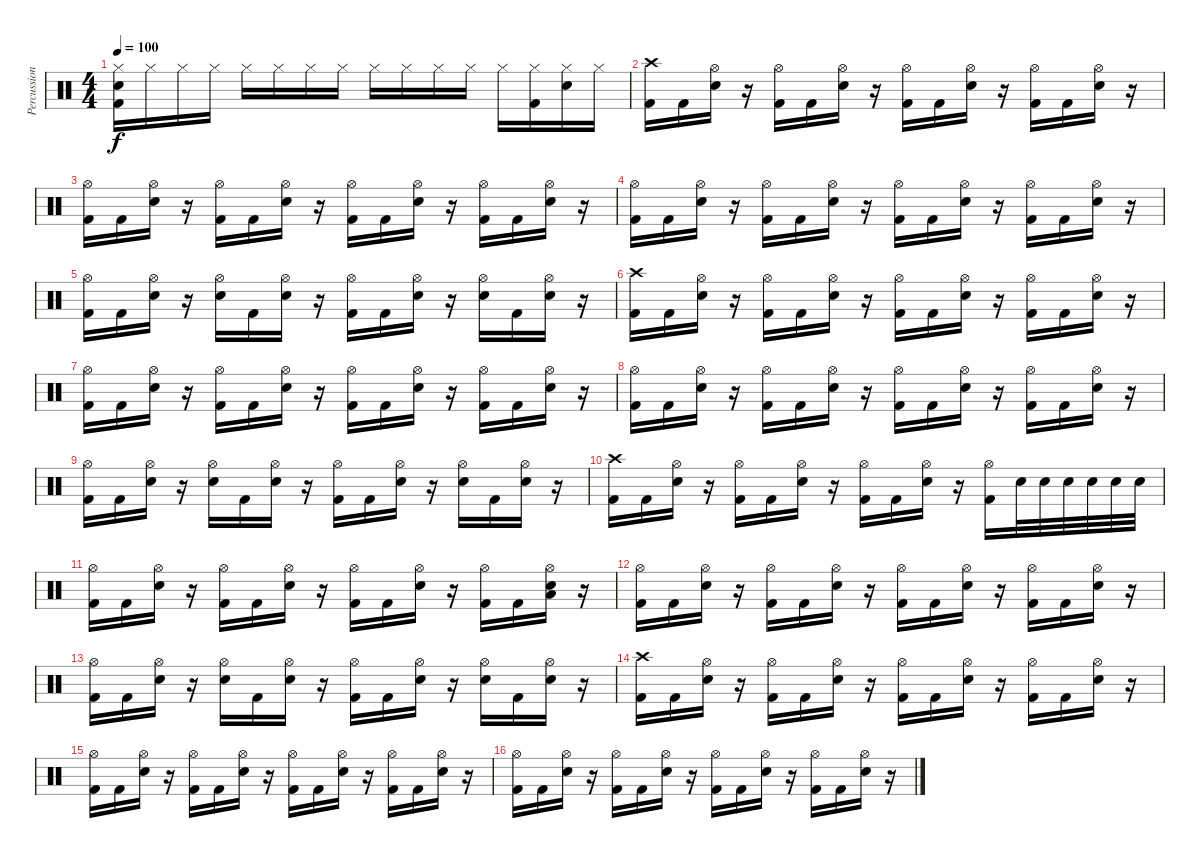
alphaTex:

\track ("Percussion" "Percussion") {instrument percussion}
\staff {score}
\articulation defaults
\ts (4 4)
\tempo 100
\clef neutral
\ks c
("Hi-Hat (closed)" "Snare (hit) 2" "Kick (hit) 2").16{dy f} "Hi-Hat (closed)".16 "Hi-Hat (closed)".16 "Hi-Hat (closed)".16 "Hi-Hat (closed)".16 "Hi-Hat (closed)".16 "Hi-Hat (closed)".16 "Hi-Hat (closed)".16 "Hi-Hat (closed)".16 "Hi-Hat (closed)".16 "Hi-Hat (closed)".16 "Hi-Hat (closed)".16 "Hi-Hat (closed)".16 ("Hi-Hat (closed)" "Kick (hit) 2").16 ("Hi-Hat (closed)" "Snare (hit) 2").16 "Hi-Hat (closed)".16 |
("Crash high (hit)" "Kick (hit) 2").16 "Kick (hit) 2".16 ("Hi-Hat (open)" "Snare (hit) 2").16 r.16 ("Hi-Hat (open)" "Kick (hit) 2").16 "Kick (hit) 2".16 ("Hi-Hat (open)" "Snare (hit) 2").16 r.16 ("Hi-Hat (open)" "Kick (hit) 2").16 "Kick (hit) 2".16 ("Hi-Hat (open)" "Snare (hit) 2").16 r.16 ("Hi-Hat (open)" "Kick (hit) 2").16 "Kick (hit) 2".16 ("Hi-Hat (open)" "Snare (hit) 2").16 r.16 |
("Hi-Hat (open)" "Kick (hit) 2").16 "Kick (hit) 2".16 ("Hi-Hat (open)" "Snare (hit) 2").16 r.16 ("Hi-Hat (open)" "Kick (hit) 2").16 "Kick (hit) 2".16 ("Hi-Hat (open)" "Snare (hit) 2").16 r.16 ("Hi-Hat (open)" "Kick (hit) 2").16 "Kick (hit) 2".16 ("Hi-Hat (open)" "Snare (hit) 2").16 r.16 ("Hi-Hat (open)" "Kick (hit) 2").16 "Kick (hit) 2".16 ("Hi-Hat (open)" "Snare (hit) 2").16 r.16 |
("Hi-Hat (open)" "Kick (hit) 2").16 "Kick (hit) 2".16 ("Hi-Hat (open)" "Snare (hit) 2").16 r.16 ("Hi-Hat (open)" "Kick (hit) 2").16 "Kick (hit) 2".16 ("Hi-Hat (open)" "Snare (hit) 2").16 r.16 ("Hi-Hat (open)" "Kick (hit) 2").16 "Kick (hit) 2".16 ("Hi-Hat (open)" "Snare (hit) 2").16 r.16 ("Hi-Hat (open)" "Kick (hit) 2").16 "Kick (hit) 2".16 ("Hi-Hat (open)" "Snare (hit) 2").16 r.16 |
("Hi-Hat (open)" "Kick (hit) 2").16 "Kick (hit) 2".16 ("Hi-Hat (open)" "Snare (hit) 2").16 r.16 ("Hi-Hat (open)" "Snare (hit) 2").16 "Kick (hit) 2".16 ("Hi-Hat (open)" "Snare (hit) 2").16 r.16 ("Hi-Hat (open)" "Kick (hit) 2").16 "Kick (hit) 2".16 ("Hi-Hat (open)" "Snare (hit) 2").16 r.16 ("Hi-Hat (open)" "Snare (hit) 2").16 "Kick (hit) 2".16 ("Hi-Hat (open)" "Snare (hit) 2").16 r.16 |
("Crash high (hit)" "Kick (hit) 2").16 "Kick (hit) 2".16 ("Hi-Hat (open)" "Snare (hit) 2").16 r.16 ("Hi-Hat (open)" "Kick (hit) 2").16 "Kick (hit) 2".16 ("Hi-Hat (open)" "Snare (hit) 2").16 r.16 ("Hi-Hat (open)" "Kick (hit) 2").16 "Kick (hit) 2".16 ("Hi-Hat (open)" "Snare (hit) 2").16 r.16 ("Hi-Hat (open)" "Kick (hit) 2").16 "Kick (hit) 2".16 ("Hi-Hat (open)" "Snare (hit) 2").16 r.16 |
("Hi-Hat (open)" "Kick (hit) 2").16 "Kick (hit) 2".16 ("Hi-Hat (open)" "Snare (hit) 2").16 r.16 ("Hi-Hat (open)" "Kick (hit) 2").16 "Kick (hit) 2".16 ("Hi-Hat (open)" "Snare (hit) 2").16 r.16 ("Hi-Hat (open)" "Kick (hit) 2").16 "Kick (hit) 2".16 ("Hi-Hat (open)" "Snare (hit) 2").16 r.16 ("Hi-Hat (open)" "Kick (hit) 2").16 "Kick (hit) 2".16 ("Hi-Hat (open)" "Snare (hit) 2").16 r.16 |
("Hi-Hat (open)" "Kick (hit) 2").16 "Kick (hit) 2".16 ("Hi-Hat (open)" "Snare (hit) 2").16 r.16 ("Hi-Hat (open)" "Kick (hit) 2").16 "Kick (hit) 2".16 ("Hi-Hat (open)" "Snare (hit) 2").16 r.16 ("Hi-Hat (open)" "Kick (hit) 2").16 "Kick (hit) 2".16 ("Hi-Hat (open)" "Snare (hit) 2").16 r.16 ("Hi-Hat (open)" "Kick (hit) 2").16 "Kick (hit) 2".16 ("Hi-Hat (open)" "Snare (hit) 2").16 r.16 |
("Hi-Hat (open)" "Kick (hit) 2").16 "Kick (hit) 2".16 ("Hi-Hat (open)" "Snare (hit) 2").16 r.16 ("Hi-Hat (open)" "Snare (hit) 2").16 "Kick (hit) 2".16 ("Hi-Hat (open)" "Snare (hit) 2").16 r.16 ("Hi-Hat (open)" "Kick (hit) 2").16 "Kick (hit) 2".16 ("Hi-Hat (open)" "Snare (hit) 2").16 r.16 ("Hi-Hat (open)" "Snare (hit) 2").16 "Kick (hit) 2".16 ("Hi-Hat (open)" "Snare (hit) 2").16 r.16 |
("Crash high (hit)" "Kick (hit) 2").16 "Kick (hit) 2".16 ("Hi-Hat (open)" "Snare (hit) 2").16 r.16 ("Hi-Hat (open)" "Kick (hit) 2").16 "Kick (hit) 2".16 ("Hi-Hat (open)" "Snare (hit) 2").16 r.16 ("Hi-Hat (open)" "Kick (hit) 2").16 "Kick (hit) 2".16 ("Hi-Hat (open)" "Snare (hit) 2").16 r.16 ("Hi-Hat (open)" "Kick (hit) 2").16 "Snare (hit) 2".32 "Snare (hit) 2".32 "Snare (hit) 2".32 "Snare (hit) 2".32 "Snare (hit) 2".32 "Snare (hit) 2".32 |
("Hi-Hat (open)" "Kick (hit) 2").16 "Kick (hit) 2".16 ("Hi-Hat (open)" "Snare (hit) 2").16 r.16 ("Hi-Hat (open)" "Kick (hit) 2").16 "Kick (hit) 2".16 ("Hi-Hat (open)" "Snare (hit) 2").16 r.16 ("Hi-Hat (open)" "Kick (hit) 2").16 "Kick (hit) 2".16 ("Hi-Hat (open)" "Snare (hit) 2").16 r.16 ("Hi-Hat (open)" "Kick (hit) 2").16 "Kick (hit) 2".16 ("Hi-Hat (open)" "Snare (hit) 2" "Low Floor Tom (hit)").16 r.16 |
("Hi-Hat (open)" "Kick (hit) 2").16 "Kick (hit) 2".16 ("Hi-Hat (open)" "Snare (hit) 2").16 r.16 ("Hi-Hat (open)" "Kick (hit) 2").16 "Kick (hit) 2".16 ("Hi-Hat (open)" "Snare (hit) 2").16 r.16 ("Hi-Hat (open)" "Kick (hit) 2").16 "Kick (hit) 2".16 ("Hi-Hat (open)" "Snare (hit) 2").16 r.16 ("Hi-Hat (open)" "Kick (hit) 2").16 "Kick (hit) 2".16 ("Hi-Hat (open)" "Snare (hit) 2").16 r.16 |
("Hi-Hat (open)" "Kick (hit) 2").16 "Kick (hit) 2".16 ("Hi-Hat (open)" "Snare (hit) 2").16 r.16 ("Hi-Hat (open)" "Snare (hit) 2").16 "Kick (hit) 2".16 ("Hi-Hat (open)" "Snare (hit) 2").16 r.16 ("Hi-Hat (open)" "Kick (hit) 2").16 "Kick (hit) 2".16 ("Hi-Hat (open)" "Snare (hit) 2").16 r.16 ("Hi-Hat (open)" "Snare (hit) 2").16 "Kick (hit) 2".16 ("Hi-Hat (open)" "Snare (hit) 2").16 r.16 |
("Crash high (hit)" "Kick (hit) 2").16 "Kick (hit) 2".16 ("Hi-Hat (open)" "Snare (hit) 2").16 r.16 ("Hi-Hat (open)" "Kick (hit) 2").16 "Kick (hit) 2".16 ("Hi-Hat (open)" "Snare (hit) 2").16 r.16 ("Hi-Hat (open)" "Kick (hit) 2").16 "Kick (hit) 2".16 ("Hi-Hat (open)" "Snare (hit) 2").16 r.16 ("Hi-Hat (open)" "Kick (hit) 2").16 "Kick (hit) 2".16 ("Hi-Hat (open)" "Snare (hit) 2").16 r.16 |
("Hi-Hat (open)" "Kick (hit) 2").16 "Kick (hit) 2".16 ("Hi-Hat (open)" "Snare (hit) 2").16 r.16 ("Hi-Hat (open)" "Kick (hit) 2").16 "Kick (hit) 2".16 ("Hi-Hat (open)" "Snare (hit) 2").16 r.16 ("Hi-Hat (open)" "Kick (hit) 2").16 "Kick (hit) 2".16 ("Hi-Hat (open)" "Snare (hit) 2").16 r.16 ("Hi-Hat (open)" "Kick (hit) 2").16 "Kick (hit) 2".16 ("Hi-Hat (open)" "Snare (hit) 2").16 r.16 |
("Hi-Hat (open)" "Kick (hit) 2").16 "Kick (hit) 2".16 ("Hi-Hat (open)" "Snare (hit) 2").16 r.16 ("Hi-Hat (open)" "Kick (hit) 2").16 "Kick (hit) 2".16 ("Hi-Hat (open)" "Snare (hit) 2").16 r.16 ("Hi-Hat (open)" "Kick (hit) 2").16 "Kick (hit) 2".16 ("Hi-Hat (open)" "Snare (hit) 2").16 r.16 ("Hi-Hat (open)" "Kick (hit) 2").16 "Kick (hit) 2".16 ("Hi-Hat (open)" "Snare (hit) 2").16 r.16
